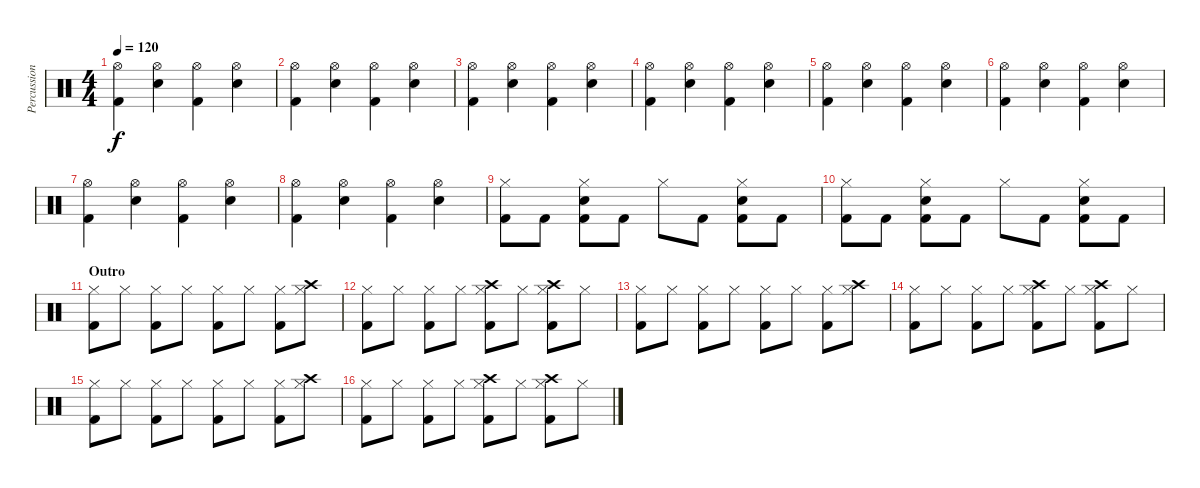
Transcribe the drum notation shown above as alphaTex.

\track ("Percussion" "Percussion") {instrument percussion}
\staff {score}
\articulation defaults
\ts (4 4)
\tempo 120
\clef neutral
\ks c
("Hi-Hat (open)" "Kick (hit) 2").4{dy f} ("Hi-Hat (open)" "Snare (hit) 2").4 ("Hi-Hat (open)" "Kick (hit) 2").4 ("Hi-Hat (open)" "Snare (hit) 2").4 |
("Hi-Hat (open)" "Kick (hit) 2").4 ("Hi-Hat (open)" "Snare (hit) 2").4 ("Hi-Hat (open)" "Kick (hit) 2").4 ("Hi-Hat (open)" "Snare (hit) 2").4 |
("Hi-Hat (open)" "Kick (hit) 2").4 ("Hi-Hat (open)" "Snare (hit) 2").4 ("Hi-Hat (open)" "Kick (hit) 2").4 ("Hi-Hat (open)" "Snare (hit) 2").4 |
("Hi-Hat (open)" "Kick (hit) 2").4 ("Hi-Hat (open)" "Snare (hit) 2").4 ("Hi-Hat (open)" "Kick (hit) 2").4 ("Hi-Hat (open)" "Snare (hit) 2").4 |
("Hi-Hat (open)" "Kick (hit) 2").4 ("Hi-Hat (open)" "Snare (hit) 2").4 ("Hi-Hat (open)" "Kick (hit) 2").4 ("Hi-Hat (open)" "Snare (hit) 2").4 |
("Hi-Hat (open)" "Kick (hit) 2").4 ("Hi-Hat (open)" "Snare (hit) 2").4 ("Hi-Hat (open)" "Kick (hit) 2").4 ("Hi-Hat (open)" "Snare (hit) 2").4 |
("Hi-Hat (open)" "Kick (hit) 2").4 ("Hi-Hat (open)" "Snare (hit) 2").4 ("Hi-Hat (open)" "Kick (hit) 2").4 ("Hi-Hat (open)" "Snare (hit) 2").4 |
("Hi-Hat (open)" "Kick (hit) 2").4 ("Hi-Hat (open)" "Snare (hit) 2").4 ("Hi-Hat (open)" "Kick (hit) 2").4 ("Hi-Hat (open)" "Snare (hit) 2").4 |
("Hi-Hat (closed)" "Kick (hit) 2").8 "Kick (hit) 2".8 ("Hi-Hat (closed)" "Kick (hit) 2" "Snare (hit) 2").8 "Kick (hit) 2".8 "Hi-Hat (closed)".8 "Kick (hit) 2".8 ("Hi-Hat (closed)" "Kick (hit) 2" "Snare (hit) 2").8 "Kick (hit) 2".8 |
("Hi-Hat (closed)" "Kick (hit) 2").8 "Kick (hit) 2".8 ("Hi-Hat (closed)" "Kick (hit) 2" "Snare (hit) 2").8 "Kick (hit) 2".8 "Hi-Hat (closed)".8 "Kick (hit) 2".8 ("Hi-Hat (closed)" "Kick (hit) 2" "Snare (hit) 2").8 "Kick (hit) 2".8 |
\section ("" "Outro")
("Hi-Hat (closed)" "Kick (hit) 2").8 "Hi-Hat (closed)".8 ("Hi-Hat (closed)" "Kick (hit) 2").8 "Hi-Hat (closed)".8 ("Hi-Hat (closed)" "Kick (hit) 2").8 "Hi-Hat (closed)".8 ("Hi-Hat (closed)" "Kick (hit) 2").8 ("Hi-Hat (closed)" "Crash high (hit)").8 |
("Hi-Hat (closed)" "Kick (hit) 2").8 "Hi-Hat (closed)".8 ("Hi-Hat (closed)" "Kick (hit) 2").8 "Hi-Hat (closed)".8 ("Hi-Hat (closed)" "Kick (hit) 2" "Crash high (hit)").8 "Hi-Hat (closed)".8 ("Hi-Hat (closed)" "Kick (hit) 2" "Crash high (hit)").8 "Hi-Hat (closed)".8 |
("Hi-Hat (closed)" "Kick (hit) 2").8 "Hi-Hat (closed)".8 ("Hi-Hat (closed)" "Kick (hit) 2").8 "Hi-Hat (closed)".8 ("Hi-Hat (closed)" "Kick (hit) 2").8 "Hi-Hat (closed)".8 ("Hi-Hat (closed)" "Kick (hit) 2").8 ("Hi-Hat (closed)" "Crash high (hit)").8 |
("Hi-Hat (closed)" "Kick (hit) 2").8 "Hi-Hat (closed)".8 ("Hi-Hat (closed)" "Kick (hit) 2").8 "Hi-Hat (closed)".8 ("Hi-Hat (closed)" "Kick (hit) 2" "Crash high (hit)").8 "Hi-Hat (closed)".8 ("Hi-Hat (closed)" "Kick (hit) 2" "Crash high (hit)").8 "Hi-Hat (closed)".8 |
("Hi-Hat (closed)" "Kick (hit) 2").8 "Hi-Hat (closed)".8 ("Hi-Hat (closed)" "Kick (hit) 2").8 "Hi-Hat (closed)".8 ("Hi-Hat (closed)" "Kick (hit) 2").8 "Hi-Hat (closed)".8 ("Hi-Hat (closed)" "Kick (hit) 2").8 ("Hi-Hat (closed)" "Crash high (hit)").8 |
("Hi-Hat (closed)" "Kick (hit) 2").8 "Hi-Hat (closed)".8 ("Hi-Hat (closed)" "Kick (hit) 2").8 "Hi-Hat (closed)".8 ("Hi-Hat (closed)" "Kick (hit) 2" "Crash high (hit)").8 "Hi-Hat (closed)".8 ("Hi-Hat (closed)" "Kick (hit) 2" "Crash high (hit)").8 "Hi-Hat (closed)".8
